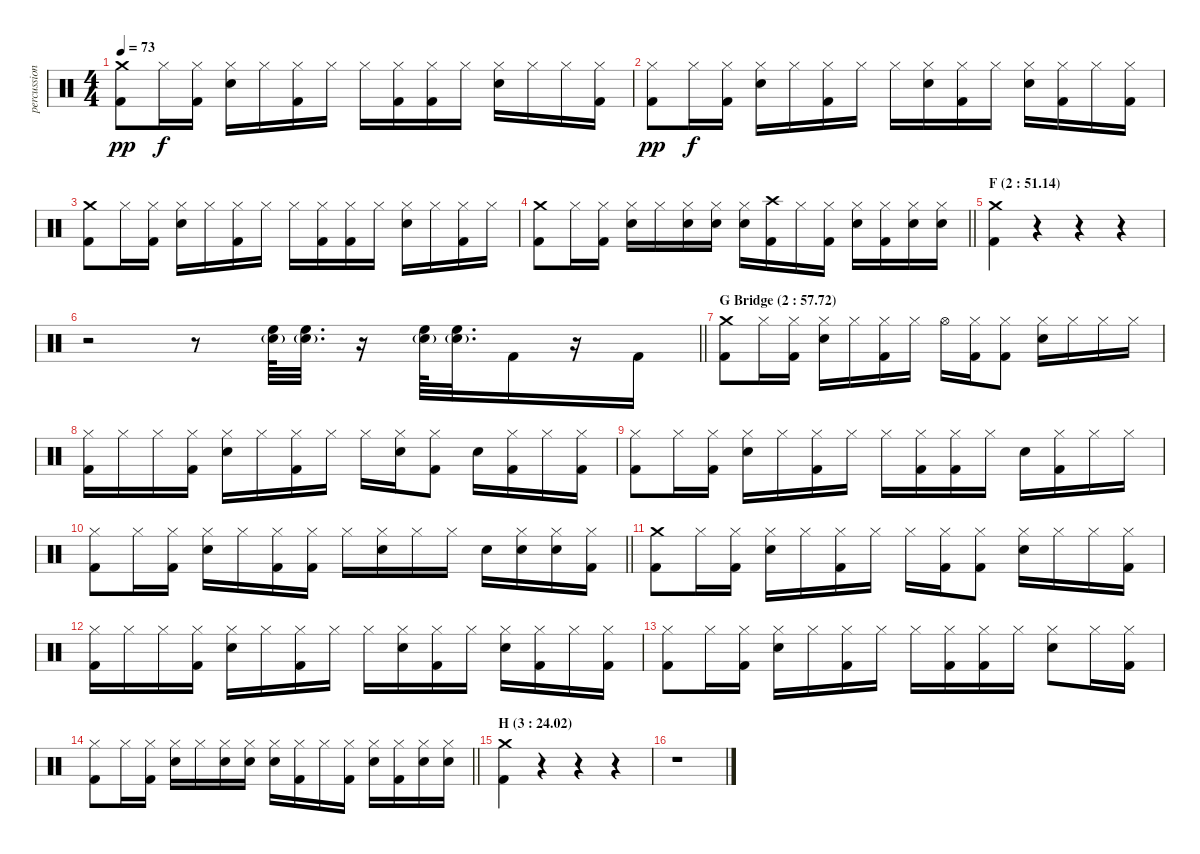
\track ("percussion" "percussion") {instrument percussion}
\staff {score}
\articulation defaults
\ts (4 4)
\tempo 73
\clef neutral
\ks c
("Crash medium (hit)" "Kick (hit) 2").8{dy pp} "Hi-Hat (closed)".16{dy f} ("Hi-Hat (closed)" "Kick (hit) 2").16 ("Snare (hit) 2" "Hi-Hat (closed)").16 "Hi-Hat (closed)".16 ("Hi-Hat (closed)" "Kick (hit) 2").16 "Hi-Hat (closed)".16 "Hi-Hat (closed)".16 ("Hi-Hat (closed)" "Kick (hit) 2").16 ("Hi-Hat (closed)" "Kick (hit) 2").16 "Hi-Hat (closed)".16 ("Snare (hit) 2" "Hi-Hat (closed)").16 "Hi-Hat (closed)".16 "Hi-Hat (closed)".16 ("Hi-Hat (closed)" "Kick (hit) 2").16 |
("Hi-Hat (closed)" "Kick (hit) 2").8{dy pp} "Hi-Hat (closed)".16{dy f} ("Hi-Hat (closed)" "Kick (hit) 2").16 ("Snare (hit) 2" "Hi-Hat (closed)").16 "Hi-Hat (closed)".16 ("Hi-Hat (closed)" "Kick (hit) 2").16 "Hi-Hat (closed)".16 "Hi-Hat (closed)".16 ("Snare (hit) 2" "Hi-Hat (closed)").16 ("Hi-Hat (closed)" "Kick (hit) 2").16 "Hi-Hat (closed)".16 ("Snare (hit) 2" "Hi-Hat (closed)").16 ("Hi-Hat (closed)" "Kick (hit) 2").16 "Hi-Hat (closed)".16 ("Hi-Hat (closed)" "Kick (hit) 2").16 |
("Crash medium (hit)" "Kick (hit) 2").8 "Hi-Hat (closed)".16 ("Hi-Hat (closed)" "Kick (hit) 2").16 ("Snare (hit) 2" "Hi-Hat (closed)").16 "Hi-Hat (closed)".16 ("Hi-Hat (closed)" "Kick (hit) 2").16 "Hi-Hat (closed)".16 "Hi-Hat (closed)".16 ("Hi-Hat (closed)" "Kick (hit) 2").16 ("Hi-Hat (closed)" "Kick (hit) 2").16 "Hi-Hat (closed)".16 ("Snare (hit) 2" "Hi-Hat (closed)").16 "Hi-Hat (closed)".16 ("Hi-Hat (closed)" "Kick (hit) 2").16 "Hi-Hat (closed)".16 |
\barLineRight lightlight
("Crash medium (hit)" "Kick (hit) 2").8 "Hi-Hat (closed)".16 ("Hi-Hat (closed)" "Kick (hit) 2").16 ("Snare (hit) 2" "Hi-Hat (closed)").16 "Hi-Hat (closed)".16 ("Snare (hit) 2" "Hi-Hat (closed)").16 ("Snare (hit) 2" "Hi-Hat (closed)").16 ("Snare (hit) 2" "Hi-Hat (closed)").16 ("Crash high (hit)" "Kick (hit) 2").16 "Hi-Hat (closed)".16 ("Hi-Hat (closed)" "Kick (hit) 2").16 ("Snare (hit) 2" "Hi-Hat (closed)").16 ("Hi-Hat (closed)" "Kick (hit) 2").16 ("Snare (hit) 2" "Hi-Hat (closed)").16 ("Snare (hit) 2" "Hi-Hat (closed)").16 |
\section ("" "F (2 : 51.14)")
("Crash medium (hit)" "Kick (hit) 2").4 r.4 r.4 r.4 |
\barLineRight lightlight
r.2 r.8 ("High Floor Tom (hit)" "Snare (hit) 2"{g}).64 ("High Floor Tom (hit)" "Snare (hit) 2"{g}).32{d} r.16 ("High Floor Tom (hit)" "Snare (hit) 2"{g}).64 ("High Floor Tom (hit)" "Snare (hit) 2"{g}).32{d} "Kick (hit) 2".16 r.16 "Kick (hit) 2".16 |
\section ("" "G Bridge (2 : 57.72)")
("Crash medium (hit)" "Kick (hit) 2").8 "Hi-Hat (closed)".16 ("Hi-Hat (closed)" "Kick (hit) 2").16 ("Snare (hit) 2" "Hi-Hat (closed)").16 "Hi-Hat (closed)".16 ("Hi-Hat (closed)" "Kick (hit) 2").16 "Hi-Hat (closed)".16 "Hi-Hat (open)".16 ("Hi-Hat (closed)" "Kick (hit) 2").16 ("Hi-Hat (closed)" "Kick (hit) 2").8 ("Snare (hit) 2" "Hi-Hat (closed)").16 "Hi-Hat (closed)".16 "Hi-Hat (closed)".16 "Hi-Hat (closed)".16 |
("Hi-Hat (closed)" "Kick (hit) 2").16 "Hi-Hat (closed)".16 "Hi-Hat (closed)".16 ("Hi-Hat (closed)" "Kick (hit) 2").16 ("Snare (hit) 2" "Hi-Hat (closed)").16 "Hi-Hat (closed)".16 ("Hi-Hat (closed)" "Kick (hit) 2").16 "Hi-Hat (closed)".16 "Hi-Hat (closed)".16 ("Snare (hit) 2" "Hi-Hat (closed)").16 ("Hi-Hat (closed)" "Kick (hit) 2").8 "Snare (hit) 2".16 ("Hi-Hat (closed)" "Kick (hit) 2").16 "Hi-Hat (closed)".16 ("Hi-Hat (closed)" "Kick (hit) 2").16 |
("Hi-Hat (closed)" "Kick (hit) 2").8 "Hi-Hat (closed)".16 ("Hi-Hat (closed)" "Kick (hit) 2").16 ("Snare (hit) 2" "Hi-Hat (closed)").16 "Hi-Hat (closed)".16 ("Hi-Hat (closed)" "Kick (hit) 2").16 "Hi-Hat (closed)".16 "Hi-Hat (closed)".16 ("Hi-Hat (closed)" "Kick (hit) 2").16 ("Hi-Hat (closed)" "Kick (hit) 2").16 "Hi-Hat (closed)".16 "Snare (hit) 2".16 ("Hi-Hat (closed)" "Kick (hit) 2").16 "Hi-Hat (closed)".16 "Hi-Hat (closed)".16 |
\barLineRight lightlight
("Hi-Hat (closed)" "Kick (hit) 2").8 "Hi-Hat (closed)".16 ("Hi-Hat (closed)" "Kick (hit) 2").16 ("Snare (hit) 2" "Hi-Hat (closed)").16 "Hi-Hat (closed)".16 ("Hi-Hat (closed)" "Kick (hit) 2").16 ("Hi-Hat (closed)" "Kick (hit) 2").16 "Hi-Hat (closed)".16 ("Snare (hit) 2" "Hi-Hat (closed)").16 "Hi-Hat (closed)".16 "Hi-Hat (closed)".16 "Snare (hit) 2".16 ("Snare (hit) 2" "Hi-Hat (closed)").16 ("Snare (hit) 2" "Hi-Hat (closed)").16 ("Hi-Hat (closed)" "Kick (hit) 2").16 |
("Crash medium (hit)" "Kick (hit) 2").8 "Hi-Hat (closed)".16 ("Hi-Hat (closed)" "Kick (hit) 2").16 ("Snare (hit) 2" "Hi-Hat (closed)").16 "Hi-Hat (closed)".16 ("Hi-Hat (closed)" "Kick (hit) 2").16 "Hi-Hat (closed)".16 "Hi-Hat (closed)".16 ("Hi-Hat (closed)" "Kick (hit) 2").16 ("Hi-Hat (closed)" "Kick (hit) 2").8 ("Snare (hit) 2" "Hi-Hat (closed)").16 "Hi-Hat (closed)".16 "Hi-Hat (closed)".16 ("Hi-Hat (closed)" "Kick (hit) 2").16 |
("Hi-Hat (closed)" "Kick (hit) 2").16 "Hi-Hat (closed)".16 "Hi-Hat (closed)".16 ("Hi-Hat (closed)" "Kick (hit) 2").16 ("Snare (hit) 2" "Hi-Hat (closed)").16 "Hi-Hat (closed)".16 ("Hi-Hat (closed)" "Kick (hit) 2").16 "Hi-Hat (closed)".16 "Hi-Hat (closed)".16 ("Snare (hit) 2" "Hi-Hat (closed)").16 ("Hi-Hat (closed)" "Kick (hit) 2").16 "Hi-Hat (closed)".16 ("Snare (hit) 2" "Hi-Hat (closed)").16 ("Hi-Hat (closed)" "Kick (hit) 2").16 "Hi-Hat (closed)".16 ("Hi-Hat (closed)" "Kick (hit) 2").16 |
("Hi-Hat (closed)" "Kick (hit) 2").8 "Hi-Hat (closed)".16 ("Hi-Hat (closed)" "Kick (hit) 2").16 ("Snare (hit) 2" "Hi-Hat (closed)").16 "Hi-Hat (closed)".16 ("Hi-Hat (closed)" "Kick (hit) 2").16 "Hi-Hat (closed)".16 "Hi-Hat (closed)".16 ("Hi-Hat (closed)" "Kick (hit) 2").16 ("Hi-Hat (closed)" "Kick (hit) 2").16 "Hi-Hat (closed)".16 ("Snare (hit) 2" "Hi-Hat (closed)").8 "Hi-Hat (closed)".16 ("Hi-Hat (closed)" "Kick (hit) 2").16 |
\barLineRight lightlight
("Hi-Hat (closed)" "Kick (hit) 2").8 "Hi-Hat (closed)".16 ("Hi-Hat (closed)" "Kick (hit) 2").16 ("Snare (hit) 2" "Hi-Hat (closed)").16 "Hi-Hat (closed)".16 ("Snare (hit) 2" "Hi-Hat (closed)").16 ("Snare (hit) 2" "Hi-Hat (closed)").16 ("Snare (hit) 2" "Hi-Hat (closed)").16 ("Hi-Hat (closed)" "Kick (hit) 2").16 "Hi-Hat (closed)".16 ("Hi-Hat (closed)" "Kick (hit) 2").16 ("Snare (hit) 2" "Hi-Hat (closed)").16 ("Hi-Hat (closed)" "Kick (hit) 2").16 ("Snare (hit) 2" "Hi-Hat (closed)").16 ("Snare (hit) 2" "Hi-Hat (closed)").16 |
\section ("" "H (3 : 24.02)")
("Crash medium (hit)" "Kick (hit) 2").4 r.4 r.4 r.4 |
r.1
